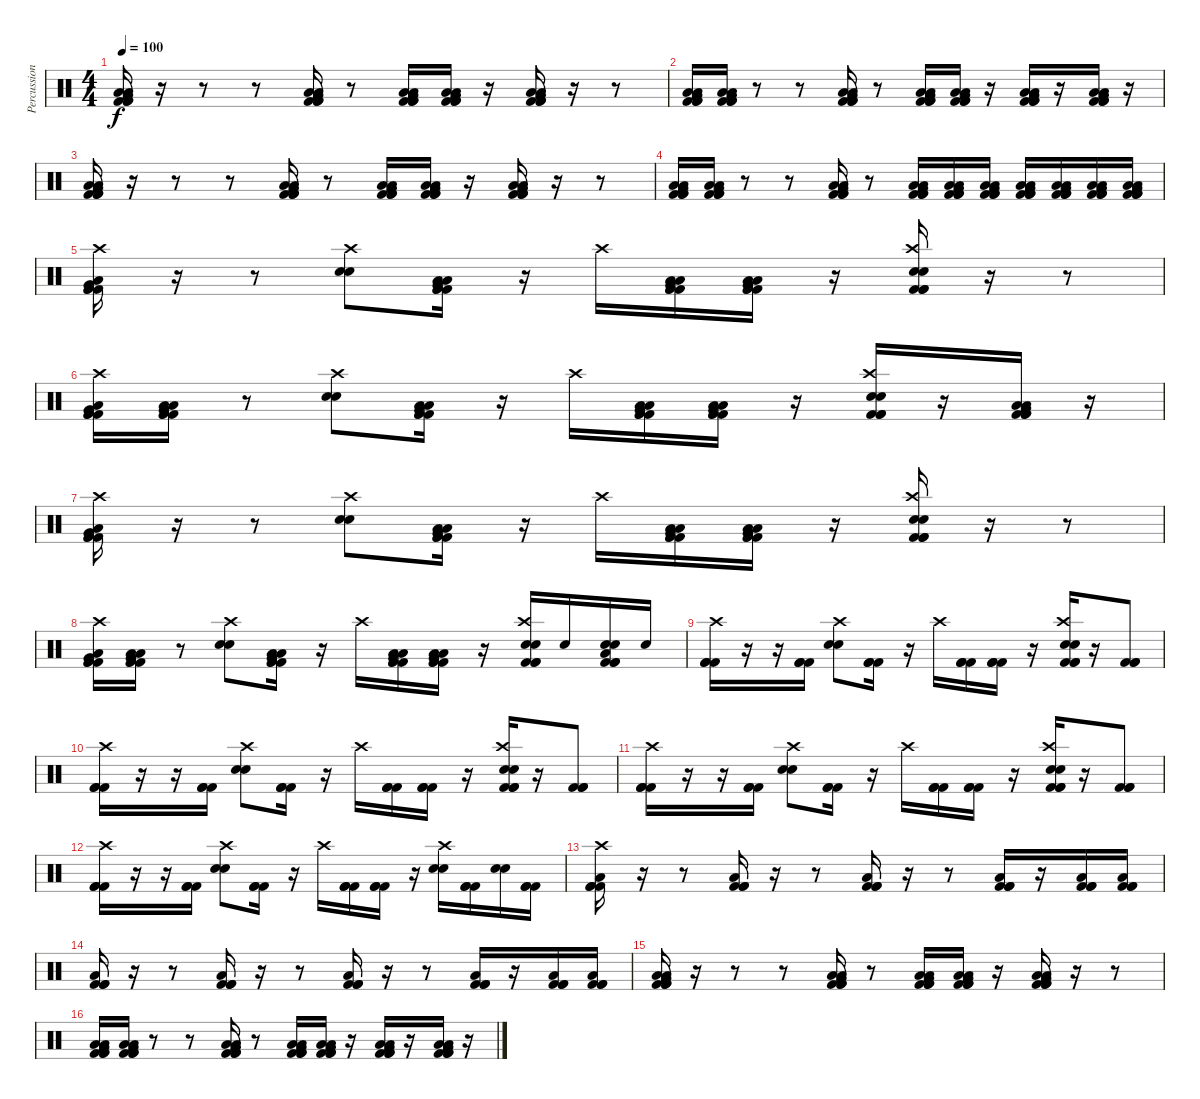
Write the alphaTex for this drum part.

\track ("Percussion" "Percussion") {instrument percussion}
\staff {score}
\articulation defaults
\ts (4 4)
\tempo 100
\clef neutral
\ks c
("Low Tom (hit)" "Very Low Tom (hit)" "Low Floor Tom (hit)" "Kick (hit) 2" "Kick (hit) 2" "Kick (hit) 2").16{dy f} r.16 r.8 r.8 ("Low Tom (hit)" "Very Low Tom (hit)" "Low Floor Tom (hit)" "Kick (hit) 2" "Kick (hit) 2" "Kick (hit) 2").16 r.8 ("Low Tom (hit)" "Very Low Tom (hit)" "Low Floor Tom (hit)" "Kick (hit) 2" "Kick (hit) 2" "Kick (hit) 2").16 ("Low Tom (hit)" "Very Low Tom (hit)" "Low Floor Tom (hit)" "Kick (hit) 2" "Kick (hit) 2" "Kick (hit) 2").16 r.16 ("Low Tom (hit)" "Very Low Tom (hit)" "Low Floor Tom (hit)" "Kick (hit) 2" "Kick (hit) 2" "Kick (hit) 2").16 r.16 r.8 |
("Low Tom (hit)" "Very Low Tom (hit)" "Low Floor Tom (hit)" "Kick (hit) 2" "Kick (hit) 2" "Kick (hit) 2").16 ("Low Tom (hit)" "Very Low Tom (hit)" "Low Floor Tom (hit)" "Kick (hit) 2" "Kick (hit) 2" "Kick (hit) 2").16 r.8 r.8 ("Low Tom (hit)" "Very Low Tom (hit)" "Low Floor Tom (hit)" "Kick (hit) 2" "Kick (hit) 2" "Kick (hit) 2").16 r.8 ("Low Tom (hit)" "Very Low Tom (hit)" "Low Floor Tom (hit)" "Kick (hit) 2" "Kick (hit) 2" "Kick (hit) 2").16 ("Low Tom (hit)" "Very Low Tom (hit)" "Low Floor Tom (hit)" "Kick (hit) 2" "Kick (hit) 2" "Kick (hit) 2").16 r.16 ("Low Tom (hit)" "Very Low Tom (hit)" "Low Floor Tom (hit)" "Kick (hit) 2" "Kick (hit) 2" "Kick (hit) 2").16 r.16 ("Low Tom (hit)" "Very Low Tom (hit)" "Low Floor Tom (hit)" "Kick (hit) 2" "Kick (hit) 2" "Kick (hit) 2").16 r.16 |
("Low Tom (hit)" "Very Low Tom (hit)" "Low Floor Tom (hit)" "Kick (hit) 2" "Kick (hit) 2" "Kick (hit) 2").16 r.16 r.8 r.8 ("Low Tom (hit)" "Very Low Tom (hit)" "Low Floor Tom (hit)" "Kick (hit) 2" "Kick (hit) 2" "Kick (hit) 2").16 r.8 ("Low Tom (hit)" "Very Low Tom (hit)" "Low Floor Tom (hit)" "Kick (hit) 2" "Kick (hit) 2" "Kick (hit) 2").16 ("Low Tom (hit)" "Very Low Tom (hit)" "Low Floor Tom (hit)" "Kick (hit) 2" "Kick (hit) 2" "Kick (hit) 2").16 r.16 ("Low Tom (hit)" "Very Low Tom (hit)" "Low Floor Tom (hit)" "Kick (hit) 2" "Kick (hit) 2" "Kick (hit) 2").16 r.16 r.8 |
("Low Tom (hit)" "Very Low Tom (hit)" "Low Floor Tom (hit)" "Kick (hit) 2" "Kick (hit) 2" "Kick (hit) 2").16 ("Low Tom (hit)" "Very Low Tom (hit)" "Low Floor Tom (hit)" "Kick (hit) 2" "Kick (hit) 2" "Kick (hit) 2").16 r.8 r.8 ("Low Tom (hit)" "Very Low Tom (hit)" "Low Floor Tom (hit)" "Kick (hit) 2" "Kick (hit) 2" "Kick (hit) 2").16 r.8 ("Low Tom (hit)" "Very Low Tom (hit)" "Low Floor Tom (hit)" "Kick (hit) 2" "Kick (hit) 2" "Kick (hit) 2").16 ("Low Tom (hit)" "Very Low Tom (hit)" "Low Floor Tom (hit)" "Kick (hit) 2" "Kick (hit) 2" "Kick (hit) 2").16 ("Low Tom (hit)" "Very Low Tom (hit)" "Low Floor Tom (hit)" "Kick (hit) 2" "Kick (hit) 2" "Kick (hit) 2").16 ("Low Tom (hit)" "Very Low Tom (hit)" "Low Floor Tom (hit)" "Kick (hit) 2" "Kick (hit) 2" "Kick (hit) 2").16 ("Low Tom (hit)" "Very Low Tom (hit)" "Low Floor Tom (hit)" "Kick (hit) 2" "Kick (hit) 2" "Kick (hit) 2").16 ("Low Tom (hit)" "Very Low Tom (hit)" "Low Floor Tom (hit)" "Kick (hit) 2" "Kick (hit) 2" "Kick (hit) 2").16 ("Low Tom (hit)" "Very Low Tom (hit)" "Low Floor Tom (hit)" "Kick (hit) 2" "Kick (hit) 2" "Kick (hit) 2").16 |
("Crash high (hit)" "Very Low Tom (hit)" "Low Floor Tom (hit)" "Kick (hit) 2" "Kick (hit) 2" "Kick (hit) 2").16 r.16 r.8 ("Crash high (hit)" "Electric Snare (hit)" "Electric Snare (hit)").8 ("Low Tom (hit)" "Very Low Tom (hit)" "Low Floor Tom (hit)" "Kick (hit) 2" "Kick (hit) 2" "Kick (hit) 2").16 r.16 "Crash high (hit)".16 ("Low Tom (hit)" "Very Low Tom (hit)" "Low Floor Tom (hit)" "Kick (hit) 2" "Kick (hit) 2" "Kick (hit) 2").16 ("Low Tom (hit)" "Very Low Tom (hit)" "Low Floor Tom (hit)" "Kick (hit) 2" "Kick (hit) 2" "Kick (hit) 2").16 r.16 ("Crash high (hit)" "Electric Snare (hit)" "Electric Snare (hit)" "Kick (hit) 2" "Kick (hit) 2" "Kick (hit) 2").16 r.16 r.8 |
("Crash high (hit)" "Very Low Tom (hit)" "Low Floor Tom (hit)" "Kick (hit) 2" "Kick (hit) 2" "Kick (hit) 2").16 ("Low Tom (hit)" "Very Low Tom (hit)" "Low Floor Tom (hit)" "Kick (hit) 2" "Kick (hit) 2" "Kick (hit) 2").16 r.8 ("Crash high (hit)" "Electric Snare (hit)" "Electric Snare (hit)").8 ("Low Tom (hit)" "Very Low Tom (hit)" "Low Floor Tom (hit)" "Kick (hit) 2" "Kick (hit) 2" "Kick (hit) 2").16 r.16 "Crash high (hit)".16 ("Low Tom (hit)" "Very Low Tom (hit)" "Low Floor Tom (hit)" "Kick (hit) 2" "Kick (hit) 2" "Kick (hit) 2").16 ("Low Tom (hit)" "Very Low Tom (hit)" "Low Floor Tom (hit)" "Kick (hit) 2" "Kick (hit) 2" "Kick (hit) 2").16 r.16 ("Crash high (hit)" "Electric Snare (hit)" "Electric Snare (hit)" "Kick (hit) 2" "Kick (hit) 2" "Kick (hit) 2").16 r.16 ("Low Tom (hit)" "Very Low Tom (hit)" "Low Floor Tom (hit)" "Kick (hit) 2" "Kick (hit) 2" "Kick (hit) 2").16 r.16 |
("Crash high (hit)" "Very Low Tom (hit)" "Low Floor Tom (hit)" "Kick (hit) 2" "Kick (hit) 2" "Kick (hit) 2").16 r.16 r.8 ("Crash high (hit)" "Electric Snare (hit)" "Electric Snare (hit)").8 ("Low Tom (hit)" "Very Low Tom (hit)" "Low Floor Tom (hit)" "Kick (hit) 2" "Kick (hit) 2" "Kick (hit) 2").16 r.16 "Crash high (hit)".16 ("Low Tom (hit)" "Very Low Tom (hit)" "Low Floor Tom (hit)" "Kick (hit) 2" "Kick (hit) 2" "Kick (hit) 2").16 ("Low Tom (hit)" "Very Low Tom (hit)" "Low Floor Tom (hit)" "Kick (hit) 2" "Kick (hit) 2" "Kick (hit) 2").16 r.16 ("Crash high (hit)" "Electric Snare (hit)" "Electric Snare (hit)" "Kick (hit) 2" "Kick (hit) 2" "Kick (hit) 2").16 r.16 r.8 |
("Crash high (hit)" "Very Low Tom (hit)" "Low Floor Tom (hit)" "Kick (hit) 2" "Kick (hit) 2" "Kick (hit) 2").16 ("Low Tom (hit)" "Very Low Tom (hit)" "Low Floor Tom (hit)" "Kick (hit) 2" "Kick (hit) 2" "Kick (hit) 2").16 r.8 ("Crash high (hit)" "Electric Snare (hit)" "Electric Snare (hit)").8 ("Low Tom (hit)" "Very Low Tom (hit)" "Low Floor Tom (hit)" "Kick (hit) 2" "Kick (hit) 2" "Kick (hit) 2").16 r.16 "Crash high (hit)".16 ("Low Tom (hit)" "Very Low Tom (hit)" "Low Floor Tom (hit)" "Kick (hit) 2" "Kick (hit) 2" "Kick (hit) 2").16 ("Low Tom (hit)" "Very Low Tom (hit)" "Low Floor Tom (hit)" "Kick (hit) 2" "Kick (hit) 2" "Kick (hit) 2").16 r.16 ("Crash high (hit)" "Electric Snare (hit)" "Electric Snare (hit)" "Kick (hit) 2" "Kick (hit) 2" "Kick (hit) 2").16 "Electric Snare (hit)".16 ("Low Tom (hit)" "Electric Snare (hit)" "Electric Snare (hit)" "Kick (hit) 2" "Kick (hit) 2" "Kick (hit) 2").16 "Electric Snare (hit)".16 |
("Crash high (hit)" "Kick (hit) 2" "Kick (hit) 2" "Kick (hit) 2").16 r.16 r.16 ("Kick (hit) 2" "Kick (hit) 2" "Kick (hit) 2").16 ("Crash high (hit)" "Electric Snare (hit)" "Electric Snare (hit)").8 ("Kick (hit) 2" "Kick (hit) 2" "Kick (hit) 2").16 r.16 "Crash high (hit)".16 ("Kick (hit) 2" "Kick (hit) 2" "Kick (hit) 2").16 ("Kick (hit) 2" "Kick (hit) 2" "Kick (hit) 2").16 r.16 ("Crash high (hit)" "Electric Snare (hit)" "Electric Snare (hit)" "Kick (hit) 2" "Kick (hit) 2" "Kick (hit) 2").16 r.16 ("Kick (hit) 2" "Kick (hit) 2" "Kick (hit) 2").8 |
("Crash high (hit)" "Kick (hit) 2" "Kick (hit) 2" "Kick (hit) 2").16 r.16 r.16 ("Kick (hit) 2" "Kick (hit) 2" "Kick (hit) 2").16 ("Crash high (hit)" "Electric Snare (hit)" "Electric Snare (hit)").8 ("Kick (hit) 2" "Kick (hit) 2" "Kick (hit) 2").16 r.16 "Crash high (hit)".16 ("Kick (hit) 2" "Kick (hit) 2" "Kick (hit) 2").16 ("Kick (hit) 2" "Kick (hit) 2" "Kick (hit) 2").16 r.16 ("Crash high (hit)" "Electric Snare (hit)" "Electric Snare (hit)" "Kick (hit) 2" "Kick (hit) 2" "Kick (hit) 2").16 r.16 ("Kick (hit) 2" "Kick (hit) 2" "Kick (hit) 2").8 |
("Crash high (hit)" "Kick (hit) 2" "Kick (hit) 2" "Kick (hit) 2").16 r.16 r.16 ("Kick (hit) 2" "Kick (hit) 2" "Kick (hit) 2").16 ("Crash high (hit)" "Electric Snare (hit)" "Electric Snare (hit)").8 ("Kick (hit) 2" "Kick (hit) 2" "Kick (hit) 2").16 r.16 "Crash high (hit)".16 ("Kick (hit) 2" "Kick (hit) 2" "Kick (hit) 2").16 ("Kick (hit) 2" "Kick (hit) 2" "Kick (hit) 2").16 r.16 ("Crash high (hit)" "Electric Snare (hit)" "Electric Snare (hit)" "Kick (hit) 2" "Kick (hit) 2" "Kick (hit) 2").16 r.16 ("Kick (hit) 2" "Kick (hit) 2" "Kick (hit) 2").8 |
("Crash high (hit)" "Kick (hit) 2" "Kick (hit) 2" "Kick (hit) 2").16 r.16 r.16 ("Kick (hit) 2" "Kick (hit) 2" "Kick (hit) 2").16 ("Crash high (hit)" "Electric Snare (hit)" "Electric Snare (hit)").8 ("Kick (hit) 2" "Kick (hit) 2" "Kick (hit) 2").16 r.16 "Crash high (hit)".16 ("Kick (hit) 2" "Kick (hit) 2" "Kick (hit) 2").16 ("Kick (hit) 2" "Kick (hit) 2" "Kick (hit) 2").16 r.16 ("Crash high (hit)" "Electric Snare (hit)" "Electric Snare (hit)").16 ("Kick (hit) 2" "Kick (hit) 2" "Kick (hit) 2").16 ("Electric Snare (hit)" "Electric Snare (hit)").16 ("Kick (hit) 2" "Kick (hit) 2" "Kick (hit) 2").16 |
("Crash high (hit)" "Low Floor Tom (hit)" "Kick (hit) 2" "Kick (hit) 2" "Kick (hit) 2").16 r.16 r.8 ("Low Floor Tom (hit)" "Kick (hit) 2" "Kick (hit) 2" "Kick (hit) 2").16 r.16 r.8 ("Low Floor Tom (hit)" "Kick (hit) 2" "Kick (hit) 2" "Kick (hit) 2").16 r.16 r.8 ("Low Floor Tom (hit)" "Kick (hit) 2" "Kick (hit) 2" "Kick (hit) 2").16 r.16 ("Low Floor Tom (hit)" "Kick (hit) 2" "Kick (hit) 2" "Kick (hit) 2").16 ("Low Floor Tom (hit)" "Kick (hit) 2" "Kick (hit) 2" "Kick (hit) 2").16 |
("Low Floor Tom (hit)" "Kick (hit) 2" "Kick (hit) 2" "Kick (hit) 2").16 r.16 r.8 ("Low Floor Tom (hit)" "Kick (hit) 2" "Kick (hit) 2" "Kick (hit) 2").16 r.16 r.8 ("Low Floor Tom (hit)" "Kick (hit) 2" "Kick (hit) 2" "Kick (hit) 2").16 r.16 r.8 ("Low Floor Tom (hit)" "Kick (hit) 2" "Kick (hit) 2" "Kick (hit) 2").16 r.16 ("Low Floor Tom (hit)" "Kick (hit) 2" "Kick (hit) 2" "Kick (hit) 2").16 ("Low Floor Tom (hit)" "Kick (hit) 2" "Kick (hit) 2" "Kick (hit) 2").16 |
("Low Tom (hit)" "Very Low Tom (hit)" "Low Floor Tom (hit)" "Kick (hit) 2" "Kick (hit) 2" "Kick (hit) 2").16 r.16 r.8 r.8 ("Low Tom (hit)" "Very Low Tom (hit)" "Low Floor Tom (hit)" "Kick (hit) 2" "Kick (hit) 2" "Kick (hit) 2").16 r.8 ("Low Tom (hit)" "Very Low Tom (hit)" "Low Floor Tom (hit)" "Kick (hit) 2" "Kick (hit) 2" "Kick (hit) 2").16 ("Low Tom (hit)" "Very Low Tom (hit)" "Low Floor Tom (hit)" "Kick (hit) 2" "Kick (hit) 2" "Kick (hit) 2").16 r.16 ("Low Tom (hit)" "Very Low Tom (hit)" "Low Floor Tom (hit)" "Kick (hit) 2" "Kick (hit) 2" "Kick (hit) 2").16 r.16 r.8 |
("Low Tom (hit)" "Very Low Tom (hit)" "Low Floor Tom (hit)" "Kick (hit) 2" "Kick (hit) 2" "Kick (hit) 2").16 ("Low Tom (hit)" "Very Low Tom (hit)" "Low Floor Tom (hit)" "Kick (hit) 2" "Kick (hit) 2" "Kick (hit) 2").16 r.8 r.8 ("Low Tom (hit)" "Very Low Tom (hit)" "Low Floor Tom (hit)" "Kick (hit) 2" "Kick (hit) 2" "Kick (hit) 2").16 r.8 ("Low Tom (hit)" "Very Low Tom (hit)" "Low Floor Tom (hit)" "Kick (hit) 2" "Kick (hit) 2" "Kick (hit) 2").16 ("Low Tom (hit)" "Very Low Tom (hit)" "Low Floor Tom (hit)" "Kick (hit) 2" "Kick (hit) 2" "Kick (hit) 2").16 r.16 ("Low Tom (hit)" "Very Low Tom (hit)" "Low Floor Tom (hit)" "Kick (hit) 2" "Kick (hit) 2" "Kick (hit) 2").16 r.16 ("Low Tom (hit)" "Very Low Tom (hit)" "Low Floor Tom (hit)" "Kick (hit) 2" "Kick (hit) 2" "Kick (hit) 2").16 r.16
